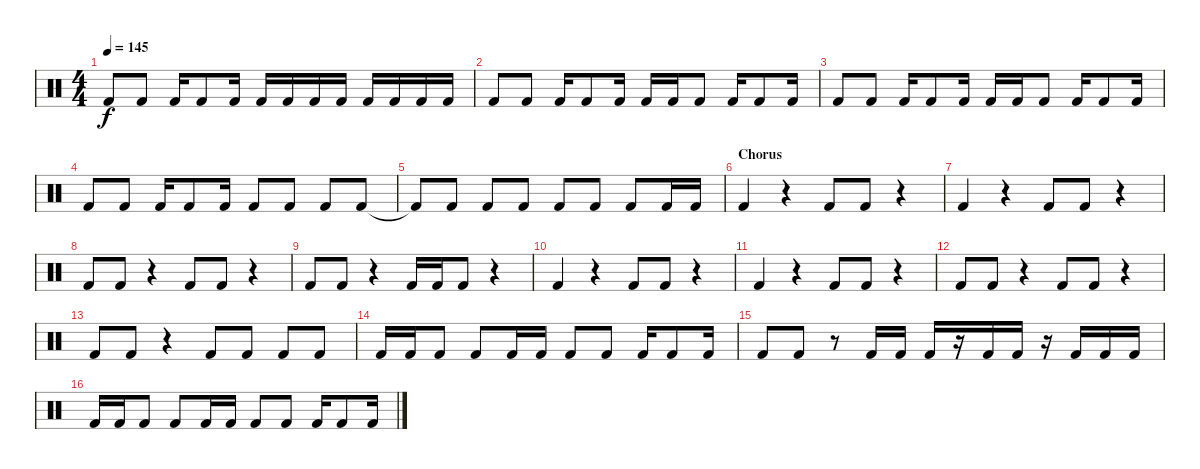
\track "" {instrument percussion}
\staff {score}
\articulation defaults
\ts (4 4)
\tempo 145
\clef neutral
\ks c "Kick (hit) 2".8{dy f} "Kick (hit) 2".8 "Kick (hit) 2".16 "Kick (hit) 2".8 "Kick (hit) 2".16 "Kick (hit) 2".16 "Kick (hit) 2".16 "Kick (hit) 2".16 "Kick (hit) 2".16 "Kick (hit) 2".16 "Kick (hit) 2".16 "Kick (hit) 2".16 "Kick (hit) 2".16
|
"Kick (hit) 2".8 "Kick (hit) 2".8 "Kick (hit) 2".16 "Kick (hit) 2".8 "Kick (hit) 2".16 "Kick (hit) 2".16 "Kick (hit) 2".16 "Kick (hit) 2".8 "Kick (hit) 2".16 "Kick (hit) 2".8 "Kick (hit) 2".16 |
"Kick (hit) 2".8 "Kick (hit) 2".8 "Kick (hit) 2".16 "Kick (hit) 2".8 "Kick (hit) 2".16 "Kick (hit) 2".16 "Kick (hit) 2".16 "Kick (hit) 2".8 "Kick (hit) 2".16 "Kick (hit) 2".8 "Kick (hit) 2".16 |
"Kick (hit) 2".8 "Kick (hit) 2".8 "Kick (hit) 2".16 "Kick (hit) 2".8 "Kick (hit) 2".16 "Kick (hit) 2".8 "Kick (hit) 2".8 "Kick (hit) 2".8 "Kick (hit) 2".8 |
"Kick (hit) 2"{t}.8 "Kick (hit) 2".8 "Kick (hit) 2".8 "Kick (hit) 2".8 "Kick (hit) 2".8 "Kick (hit) 2".8 "Kick (hit) 2".8 "Kick (hit) 2".16 "Kick (hit) 2".16 |
\section ("" "Chorus")
"Kick (hit) 2".4 r.4 "Kick (hit) 2".8 "Kick (hit) 2".8 r.4 |
"Kick (hit) 2".4 r.4 "Kick (hit) 2".8 "Kick (hit) 2".8 r.4 |
"Kick (hit) 2".8 "Kick (hit) 2".8 r.4 "Kick (hit) 2".8 "Kick (hit) 2".8 r.4 |
"Kick (hit) 2".8 "Kick (hit) 2".8 r.4 "Kick (hit) 2".16 "Kick (hit) 2".16 "Kick (hit) 2".8 r.4 |
"Kick (hit) 2".4 r.4 "Kick (hit) 2".8 "Kick (hit) 2".8 r.4 |
"Kick (hit) 2".4 r.4 "Kick (hit) 2".8 "Kick (hit) 2".8 r.4 |
"Kick (hit) 2".8 "Kick (hit) 2".8 r.4 "Kick (hit) 2".8 "Kick (hit) 2".8 r.4 |
"Kick (hit) 2".8 "Kick (hit) 2".8 r.4 "Kick (hit) 2".8 "Kick (hit) 2".8 "Kick (hit) 2".8 "Kick (hit) 2".8 |
"Kick (hit) 2".16 "Kick (hit) 2".16 "Kick (hit) 2".8 "Kick (hit) 2".8 "Kick (hit) 2".16 "Kick (hit) 2".16 "Kick (hit) 2".8 "Kick (hit) 2".8 "Kick (hit) 2".16 "Kick (hit) 2".8 "Kick (hit) 2".16 |
"Kick (hit) 2".8 "Kick (hit) 2".8 r.8 "Kick (hit) 2".16 "Kick (hit) 2".16 "Kick (hit) 2".16 r.16 "Kick (hit) 2".16 "Kick (hit) 2".16 r.16 "Kick (hit) 2".16 "Kick (hit) 2".16 "Kick (hit) 2".16 |
"Kick (hit) 2".16 "Kick (hit) 2".16 "Kick (hit) 2".8 "Kick (hit) 2".8 "Kick (hit) 2".16 "Kick (hit) 2".16 "Kick (hit) 2".8 "Kick (hit) 2".8 "Kick (hit) 2".16 "Kick (hit) 2".8 "Kick (hit) 2".16
